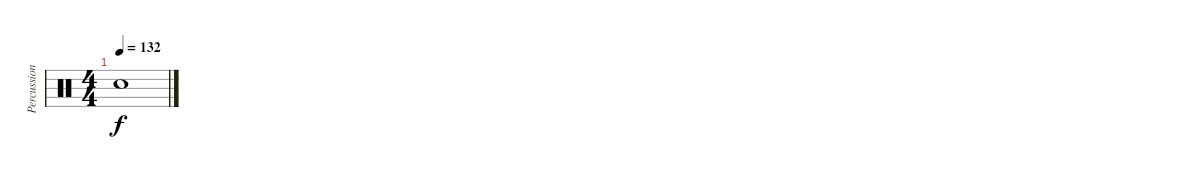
\track ("Percussioni" "Percussion") {instrument percussion}
\staff {score}
\articulation defaults
\ts (4 4)
\tempo 132
\clef neutral
\ks c "Snare (hit)"{t}.1{dy f}
